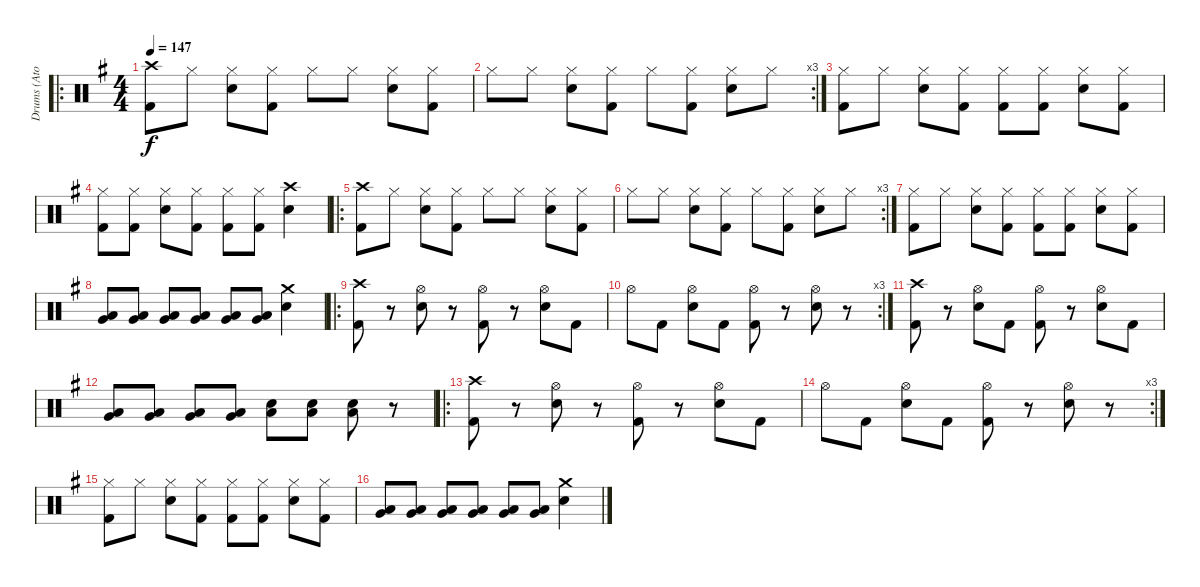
\track ("Drums (Atom Willard)" "Drums (Ato") {instrument percussion}
\staff {score}
\articulation defaults
\ro
\ts (4 4)
\tempo 147
\clef neutral
\ks g
("Crash high (hit)" "Kick (hit) 2").8{dy f} "Hi-Hat (closed)".8 ("Hi-Hat (closed)" "Snare (hit) 2").8 ("Hi-Hat (closed)" "Kick (hit) 2").8 "Hi-Hat (closed)".8 "Hi-Hat (closed)".8 ("Hi-Hat (closed)" "Snare (hit) 2").8 ("Hi-Hat (closed)" "Kick (hit) 2").8 |
\rc 3 "Hi-Hat (closed)".8 "Hi-Hat (closed)".8
("Hi-Hat (closed)" "Snare (hit) 2").8 ("Hi-Hat (closed)" "Kick (hit) 2").8 "Hi-Hat (closed)".8 ("Hi-Hat (closed)" "Kick (hit) 2").8 ("Hi-Hat (closed)" "Snare (hit) 2").8 "Hi-Hat (closed)".8 |
("Hi-Hat (closed)" "Kick (hit) 2").8 "Hi-Hat (closed)".8 ("Hi-Hat (closed)" "Snare (hit) 2").8 ("Hi-Hat (closed)" "Kick (hit) 2").8 ("Hi-Hat (closed)" "Kick (hit) 2").8 ("Hi-Hat (closed)" "Kick (hit) 2").8 ("Hi-Hat (closed)" "Snare (hit) 2").8 ("Hi-Hat (closed)" "Kick (hit) 2").8 |
("Hi-Hat (closed)" "Kick (hit) 2").8 ("Hi-Hat (closed)" "Kick (hit) 2").8 ("Hi-Hat (closed)" "Snare (hit) 2").8 ("Hi-Hat (closed)" "Kick (hit) 2").8 ("Hi-Hat (closed)" "Kick (hit) 2").8 ("Hi-Hat (closed)" "Kick (hit) 2").8 ("Crash high (hit)" "Snare (hit) 2").4 |
\ro
("Crash high (hit)" "Kick (hit) 2").8 "Hi-Hat (closed)".8 ("Hi-Hat (closed)" "Snare (hit) 2").8 ("Hi-Hat (closed)" "Kick (hit) 2").8 "Hi-Hat (closed)".8 "Hi-Hat (closed)".8 ("Hi-Hat (closed)" "Snare (hit) 2").8 ("Hi-Hat (closed)" "Kick (hit) 2").8 |
\rc 3 "Hi-Hat (closed)".8 "Hi-Hat (closed)".8
("Hi-Hat (closed)" "Snare (hit) 2").8 ("Hi-Hat (closed)" "Kick (hit) 2").8 "Hi-Hat (closed)".8 ("Hi-Hat (closed)" "Kick (hit) 2").8 ("Hi-Hat (closed)" "Snare (hit) 2").8 "Hi-Hat (closed)".8 |
("Hi-Hat (closed)" "Kick (hit) 2").8 "Hi-Hat (closed)".8 ("Hi-Hat (closed)" "Snare (hit) 2").8 ("Hi-Hat (closed)" "Kick (hit) 2").8 ("Hi-Hat (closed)" "Kick (hit) 2").8 ("Hi-Hat (closed)" "Kick (hit) 2").8 ("Hi-Hat (closed)" "Snare (hit) 2").8 ("Hi-Hat (closed)" "Kick (hit) 2").8 |
("Very Low Tom (hit)" "Low Floor Tom (hit)").8 ("Very Low Tom (hit)" "Low Floor Tom (hit)").8 ("Very Low Tom (hit)" "Low Floor Tom (hit)").8 ("Very Low Tom (hit)" "Low Floor Tom (hit)").8 ("Very Low Tom (hit)" "Low Floor Tom (hit)").8 ("Very Low Tom (hit)" "Low Floor Tom (hit)").8 ("Crash medium (hit)" "Snare (hit) 2").4 |
\ro
("Crash high (hit)" "Kick (hit) 2").8 r.8 ("Hi-Hat (open)" "Snare (hit) 2").8 r.8 ("Hi-Hat (open)" "Kick (hit) 2").8 r.8 ("Hi-Hat (open)" "Snare (hit) 2").8 "Kick (hit) 2".8 |
\rc 3 "Hi-Hat (open)".8 "Kick (hit) 2".8
("Hi-Hat (open)" "Snare (hit) 2").8 "Kick (hit) 2".8 ("Hi-Hat (open)" "Kick (hit) 2").8 r.8 ("Hi-Hat (open)" "Snare (hit) 2").8 r.8 |
("Crash high (hit)" "Kick (hit) 2").8 r.8 ("Hi-Hat (open)" "Snare (hit) 2").8 "Kick (hit) 2".8 ("Hi-Hat (open)" "Kick (hit) 2").8 r.8 ("Hi-Hat (open)" "Snare (hit) 2").8 "Kick (hit) 2".8 |
("Low Floor Tom (hit)" "Very Low Tom (hit)").8 ("Low Floor Tom (hit)" "Very Low Tom (hit)").8 ("Low Floor Tom (hit)" "Very Low Tom (hit)").8 ("Low Floor Tom (hit)" "Very Low Tom (hit)").8 ("Low Floor Tom (hit)" "Snare (hit) 2").8 ("Low Floor Tom (hit)" "Snare (hit) 2").8 ("Low Floor Tom (hit)" "Snare (hit) 2").8 r.8 |
\ro
("Crash high (hit)" "Kick (hit) 2").8 r.8 ("Hi-Hat (open)" "Snare (hit) 2").8 r.8 ("Hi-Hat (open)" "Kick (hit) 2").8 r.8 ("Hi-Hat (open)" "Snare (hit) 2").8 "Kick (hit) 2".8 |
\rc 3 "Hi-Hat (open)".8 "Kick (hit) 2".8
("Hi-Hat (open)" "Snare (hit) 2").8 "Kick (hit) 2".8 ("Hi-Hat (open)" "Kick (hit) 2").8 r.8 ("Hi-Hat (open)" "Snare (hit) 2").8 r.8 |
("Hi-Hat (closed)" "Kick (hit) 2").8 "Hi-Hat (closed)".8 ("Hi-Hat (closed)" "Snare (hit) 2").8 ("Hi-Hat (closed)" "Kick (hit) 2").8 ("Hi-Hat (closed)" "Kick (hit) 2").8 ("Hi-Hat (closed)" "Kick (hit) 2").8 ("Hi-Hat (closed)" "Snare (hit) 2").8 ("Hi-Hat (closed)" "Kick (hit) 2").8 |
("Very Low Tom (hit)" "Low Floor Tom (hit)").8 ("Very Low Tom (hit)" "Low Floor Tom (hit)").8 ("Very Low Tom (hit)" "Low Floor Tom (hit)").8 ("Very Low Tom (hit)" "Low Floor Tom (hit)").8 ("Very Low Tom (hit)" "Low Floor Tom (hit)").8 ("Very Low Tom (hit)" "Low Floor Tom (hit)").8 ("Crash medium (hit)" "Snare (hit) 2").4
